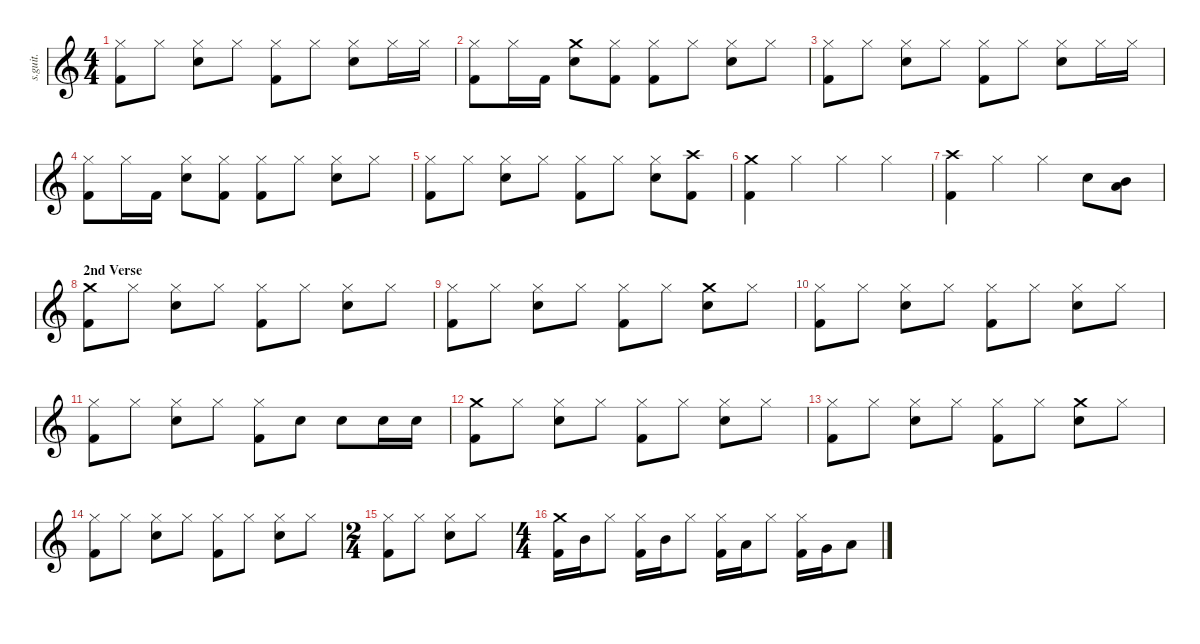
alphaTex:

\defaultSystemsLayout 4
\hideDynamics
\bracketExtendMode nobrackets
\track ("Lars Ulrich" "s.guit.") {instrument percussion}
\staff {score}
\articulation defaults
\ts (4 4)
\tempo (69 hide)
\clef g2
\ks c
("Hi-Hat (closed)" "Kick (hit) 2").8{lyrics (0 "") lyrics (1 "") lyrics (2 "") lyrics (3 "") lyrics (4 "") dy f} "Hi-Hat (closed)".8{lyrics (0 "") lyrics (1 "") lyrics (2 "") lyrics (3 "") lyrics (4 "")} ("Hi-Hat (closed)" "Snare (hit) 2").8{lyrics (0 "") lyrics (1 "") lyrics (2 "") lyrics (3 "") lyrics (4 "")} "Hi-Hat (closed)".8{lyrics (0 "") lyrics (1 "") lyrics (2 "") lyrics (3 "") lyrics (4 "")} ("Hi-Hat (closed)" "Kick (hit) 2").8{lyrics (0 "") lyrics (1 "") lyrics (2 "") lyrics (3 "") lyrics (4 "")} "Hi-Hat (closed)".8{lyrics (0 "") lyrics (1 "") lyrics (2 "") lyrics (3 "") lyrics (4 "")} ("Hi-Hat (closed)" "Snare (hit) 2").8{lyrics (0 "") lyrics (1 "") lyrics (2 "") lyrics (3 "") lyrics (4 "")} "Hi-Hat (closed)".16{lyrics (0 "") lyrics (1 "") lyrics (2 "") lyrics (3 "") lyrics (4 "")} "Hi-Hat (closed)".16{lyrics (0 "") lyrics (1 "") lyrics (2 "") lyrics (3 "") lyrics (4 "")} |
("Hi-Hat (closed)" "Kick (hit) 2").8{lyrics (0 "") lyrics (1 "") lyrics (2 "") lyrics (3 "") lyrics (4 "")} "Hi-Hat (closed)".16{lyrics (0 "") lyrics (1 "") lyrics (2 "") lyrics (3 "") lyrics (4 "")} "Kick (hit) 2".16{lyrics (0 "") lyrics (1 "") lyrics (2 "") lyrics (3 "") lyrics (4 "") dy fff} ("Crash medium (hit)" "Snare (hit) 2").8{lyrics (0 "") lyrics (1 "") lyrics (2 "") lyrics (3 "") lyrics (4 "") dy f} ("Hi-Hat (closed)" "Kick (hit) 2").8{lyrics (0 "") lyrics (1 "") lyrics (2 "") lyrics (3 "") lyrics (4 "")} ("Hi-Hat (closed)" "Kick (hit) 2").8{lyrics (0 "") lyrics (1 "") lyrics (2 "") lyrics (3 "") lyrics (4 "")} "Hi-Hat (closed)".8{lyrics (0 "") lyrics (1 "") lyrics (2 "") lyrics (3 "") lyrics (4 "")} ("Hi-Hat (closed)" "Snare (hit) 2").8{lyrics (0 "") lyrics (1 "") lyrics (2 "") lyrics (3 "") lyrics (4 "")} "Hi-Hat (closed)".8{lyrics (0 "") lyrics (1 "") lyrics (2 "") lyrics (3 "") lyrics (4 "")} |
("Hi-Hat (closed)" "Kick (hit) 2").8{lyrics (0 "") lyrics (1 "") lyrics (2 "") lyrics (3 "") lyrics (4 "")} "Hi-Hat (closed)".8{lyrics (0 "") lyrics (1 "") lyrics (2 "") lyrics (3 "") lyrics (4 "")} ("Hi-Hat (closed)" "Snare (hit) 2").8{lyrics (0 "") lyrics (1 "") lyrics (2 "") lyrics (3 "") lyrics (4 "")} "Hi-Hat (closed)".8{lyrics (0 "") lyrics (1 "") lyrics (2 "") lyrics (3 "") lyrics (4 "")} ("Hi-Hat (closed)" "Kick (hit) 2").8{lyrics (0 "") lyrics (1 "") lyrics (2 "") lyrics (3 "") lyrics (4 "")} "Hi-Hat (closed)".8{lyrics (0 "") lyrics (1 "") lyrics (2 "") lyrics (3 "") lyrics (4 "")} ("Hi-Hat (closed)" "Snare (hit) 2").8{lyrics (0 "") lyrics (1 "") lyrics (2 "") lyrics (3 "") lyrics (4 "")} "Hi-Hat (closed)".16{lyrics (0 "") lyrics (1 "") lyrics (2 "") lyrics (3 "") lyrics (4 "")} "Hi-Hat (closed)".16{lyrics (0 "") lyrics (1 "") lyrics (2 "") lyrics (3 "") lyrics (4 "")} |
("Hi-Hat (closed)" "Kick (hit) 2").8{lyrics (0 "") lyrics (1 "") lyrics (2 "") lyrics (3 "") lyrics (4 "")} "Hi-Hat (closed)".16{lyrics (0 "") lyrics (1 "") lyrics (2 "") lyrics (3 "") lyrics (4 "")} "Kick (hit) 2".16{lyrics (0 "") lyrics (1 "") lyrics (2 "") lyrics (3 "") lyrics (4 "") dy fff} ("Hi-Hat (closed)" "Snare (hit) 2").8{lyrics (0 "") lyrics (1 "") lyrics (2 "") lyrics (3 "") lyrics (4 "") dy f} ("Hi-Hat (closed)" "Kick (hit) 2").8{lyrics (0 "") lyrics (1 "") lyrics (2 "") lyrics (3 "") lyrics (4 "")} ("Hi-Hat (closed)" "Kick (hit) 2").8{lyrics (0 "") lyrics (1 "") lyrics (2 "") lyrics (3 "") lyrics (4 "")} "Hi-Hat (closed)".8{lyrics (0 "") lyrics (1 "") lyrics (2 "") lyrics (3 "") lyrics (4 "")} ("Hi-Hat (closed)" "Snare (hit) 2").8{lyrics (0 "") lyrics (1 "") lyrics (2 "") lyrics (3 "") lyrics (4 "")} "Hi-Hat (closed)".8{lyrics (0 "") lyrics (1 "") lyrics (2 "") lyrics (3 "") lyrics (4 "")} |
("Hi-Hat (closed)" "Kick (hit) 2").8{lyrics (0 "") lyrics (1 "") lyrics (2 "") lyrics (3 "") lyrics (4 "")} "Hi-Hat (closed)".8{lyrics (0 "") lyrics (1 "") lyrics (2 "") lyrics (3 "") lyrics (4 "")} ("Hi-Hat (closed)" "Snare (hit) 2").8{lyrics (0 "") lyrics (1 "") lyrics (2 "") lyrics (3 "") lyrics (4 "")} "Hi-Hat (closed)".8{lyrics (0 "") lyrics (1 "") lyrics (2 "") lyrics (3 "") lyrics (4 "")} ("Hi-Hat (closed)" "Kick (hit) 2").8{lyrics (0 "") lyrics (1 "") lyrics (2 "") lyrics (3 "") lyrics (4 "")} "Hi-Hat (closed)".8{lyrics (0 "") lyrics (1 "") lyrics (2 "") lyrics (3 "") lyrics (4 "")} ("Hi-Hat (closed)" "Snare (hit) 2").8{lyrics (0 "") lyrics (1 "") lyrics (2 "") lyrics (3 "") lyrics (4 "")} ("Crash high (hit)" "Kick (hit) 2").8{lyrics (0 "") lyrics (1 "") lyrics (2 "") lyrics (3 "") lyrics (4 "")} |
("Crash medium (hit)" "Kick (hit) 2").4{lyrics (0 "") lyrics (1 "") lyrics (2 "") lyrics (3 "") lyrics (4 "")} "Hi-Hat (closed)".4{lyrics (0 "") lyrics (1 "") lyrics (2 "") lyrics (3 "") lyrics (4 "") dy p} "Hi-Hat (closed)".4{lyrics (0 "") lyrics (1 "") lyrics (2 "") lyrics (3 "") lyrics (4 "")} "Hi-Hat (closed)".4{lyrics (0 "") lyrics (1 "") lyrics (2 "") lyrics (3 "") lyrics (4 "")} |
("Crash high (hit)" "Kick (hit) 2").4{lyrics (0 "") lyrics (1 "") lyrics (2 "") lyrics (3 "") lyrics (4 "") dy f} "Hi-Hat (closed)".4{lyrics (0 "") lyrics (1 "") lyrics (2 "") lyrics (3 "") lyrics (4 "") dy p} "Hi-Hat (closed)".4{lyrics (0 "") lyrics (1 "") lyrics (2 "") lyrics (3 "") lyrics (4 "")} "Snare (hit) 2".8{lyrics (0 "") lyrics (1 "") lyrics (2 "") lyrics (3 "") lyrics (4 "") dy f} ("Mid Tom (hit)" "Low Tom (hit)").8{lyrics (0 "") lyrics (1 "") lyrics (2 "") lyrics (3 "") lyrics (4 "") dy fff} |
\section ("" "2nd Verse")
("Crash medium (hit)" "Kick (hit) 2").8{lyrics (0 "") lyrics (1 "") lyrics (2 "") lyrics (3 "") lyrics (4 "") dy f} "Hi-Hat (closed)".8{lyrics (0 "") lyrics (1 "") lyrics (2 "") lyrics (3 "") lyrics (4 "")} ("Hi-Hat (closed)" "Snare (hit) 2").8{lyrics (0 "") lyrics (1 "") lyrics (2 "") lyrics (3 "") lyrics (4 "")} "Hi-Hat (closed)".8{lyrics (0 "") lyrics (1 "") lyrics (2 "") lyrics (3 "") lyrics (4 "")} ("Hi-Hat (closed)" "Kick (hit) 2").8{lyrics (0 "") lyrics (1 "") lyrics (2 "") lyrics (3 "") lyrics (4 "")} "Hi-Hat (closed)".8{lyrics (0 "") lyrics (1 "") lyrics (2 "") lyrics (3 "") lyrics (4 "")} ("Hi-Hat (closed)" "Snare (hit) 2").8{lyrics (0 "") lyrics (1 "") lyrics (2 "") lyrics (3 "") lyrics (4 "")} "Hi-Hat (closed)".8{lyrics (0 "") lyrics (1 "") lyrics (2 "") lyrics (3 "") lyrics (4 "")} |
("Hi-Hat (closed)" "Kick (hit) 2").8{lyrics (0 "") lyrics (1 "") lyrics (2 "") lyrics (3 "") lyrics (4 "")} "Hi-Hat (closed)".8{lyrics (0 "") lyrics (1 "") lyrics (2 "") lyrics (3 "") lyrics (4 "")} ("Hi-Hat (closed)" "Snare (hit) 2").8{lyrics (0 "") lyrics (1 "") lyrics (2 "") lyrics (3 "") lyrics (4 "")} "Hi-Hat (closed)".8{lyrics (0 "") lyrics (1 "") lyrics (2 "") lyrics (3 "") lyrics (4 "")} ("Hi-Hat (closed)" "Kick (hit) 2").8{lyrics (0 "") lyrics (1 "") lyrics (2 "") lyrics (3 "") lyrics (4 "")} "Hi-Hat (closed)".8{lyrics (0 "") lyrics (1 "") lyrics (2 "") lyrics (3 "") lyrics (4 "")} ("Crash medium (hit)" "Snare (hit) 2").8{lyrics (0 "") lyrics (1 "") lyrics (2 "") lyrics (3 "") lyrics (4 "")} "Hi-Hat (closed)".8{lyrics (0 "") lyrics (1 "") lyrics (2 "") lyrics (3 "") lyrics (4 "")} |
("Hi-Hat (closed)" "Kick (hit) 2").8{lyrics (0 "") lyrics (1 "") lyrics (2 "") lyrics (3 "") lyrics (4 "")} "Hi-Hat (closed)".8{lyrics (0 "") lyrics (1 "") lyrics (2 "") lyrics (3 "") lyrics (4 "")} ("Hi-Hat (closed)" "Snare (hit) 2").8{lyrics (0 "") lyrics (1 "") lyrics (2 "") lyrics (3 "") lyrics (4 "")} "Hi-Hat (closed)".8{lyrics (0 "") lyrics (1 "") lyrics (2 "") lyrics (3 "") lyrics (4 "")} ("Hi-Hat (closed)" "Kick (hit) 2").8{lyrics (0 "") lyrics (1 "") lyrics (2 "") lyrics (3 "") lyrics (4 "")} "Hi-Hat (closed)".8{lyrics (0 "") lyrics (1 "") lyrics (2 "") lyrics (3 "") lyrics (4 "")} ("Hi-Hat (closed)" "Snare (hit) 2").8{lyrics (0 "") lyrics (1 "") lyrics (2 "") lyrics (3 "") lyrics (4 "")} "Hi-Hat (closed)".8{lyrics (0 "") lyrics (1 "") lyrics (2 "") lyrics (3 "") lyrics (4 "")} |
("Hi-Hat (closed)" "Kick (hit) 2").8{lyrics (0 "") lyrics (1 "") lyrics (2 "") lyrics (3 "") lyrics (4 "")} "Hi-Hat (closed)".8{lyrics (0 "") lyrics (1 "") lyrics (2 "") lyrics (3 "") lyrics (4 "")} ("Hi-Hat (closed)" "Snare (hit) 2").8{lyrics (0 "") lyrics (1 "") lyrics (2 "") lyrics (3 "") lyrics (4 "")} "Hi-Hat (closed)".8{lyrics (0 "") lyrics (1 "") lyrics (2 "") lyrics (3 "") lyrics (4 "")} ("Hi-Hat (closed)" "Kick (hit) 2").8{lyrics (0 "") lyrics (1 "") lyrics (2 "") lyrics (3 "") lyrics (4 "")} "Snare (hit) 2".8{lyrics (0 "") lyrics (1 "") lyrics (2 "") lyrics (3 "") lyrics (4 "")} "Snare (hit) 2".8{lyrics (0 "") lyrics (1 "") lyrics (2 "") lyrics (3 "") lyrics (4 "")} "Snare (hit) 2".16{lyrics (0 "") lyrics (1 "") lyrics (2 "") lyrics (3 "") lyrics (4 "")} "Snare (hit) 2".16{lyrics (0 "") lyrics (1 "") lyrics (2 "") lyrics (3 "") lyrics (4 "")} |
("Crash medium (hit)" "Kick (hit) 2").8{lyrics (0 "") lyrics (1 "") lyrics (2 "") lyrics (3 "") lyrics (4 "")} "Hi-Hat (closed)".8{lyrics (0 "") lyrics (1 "") lyrics (2 "") lyrics (3 "") lyrics (4 "")} ("Hi-Hat (closed)" "Snare (hit) 2").8{lyrics (0 "") lyrics (1 "") lyrics (2 "") lyrics (3 "") lyrics (4 "")} "Hi-Hat (closed)".8{lyrics (0 "") lyrics (1 "") lyrics (2 "") lyrics (3 "") lyrics (4 "")} ("Hi-Hat (closed)" "Kick (hit) 2").8{lyrics (0 "") lyrics (1 "") lyrics (2 "") lyrics (3 "") lyrics (4 "")} "Hi-Hat (closed)".8{lyrics (0 "") lyrics (1 "") lyrics (2 "") lyrics (3 "") lyrics (4 "")} ("Hi-Hat (closed)" "Snare (hit) 2").8{lyrics (0 "") lyrics (1 "") lyrics (2 "") lyrics (3 "") lyrics (4 "")} "Hi-Hat (closed)".8{lyrics (0 "") lyrics (1 "") lyrics (2 "") lyrics (3 "") lyrics (4 "")} |
("Hi-Hat (closed)" "Kick (hit) 2").8{lyrics (0 "") lyrics (1 "") lyrics (2 "") lyrics (3 "") lyrics (4 "")} "Hi-Hat (closed)".8{lyrics (0 "") lyrics (1 "") lyrics (2 "") lyrics (3 "") lyrics (4 "")} ("Hi-Hat (closed)" "Snare (hit) 2").8{lyrics (0 "") lyrics (1 "") lyrics (2 "") lyrics (3 "") lyrics (4 "")} "Hi-Hat (closed)".8{lyrics (0 "") lyrics (1 "") lyrics (2 "") lyrics (3 "") lyrics (4 "")} ("Hi-Hat (closed)" "Kick (hit) 2").8{lyrics (0 "") lyrics (1 "") lyrics (2 "") lyrics (3 "") lyrics (4 "")} "Hi-Hat (closed)".8{lyrics (0 "") lyrics (1 "") lyrics (2 "") lyrics (3 "") lyrics (4 "")} ("Crash medium (hit)" "Snare (hit) 2").8{lyrics (0 "") lyrics (1 "") lyrics (2 "") lyrics (3 "") lyrics (4 "")} "Hi-Hat (closed)".8{lyrics (0 "") lyrics (1 "") lyrics (2 "") lyrics (3 "") lyrics (4 "")} |
("Hi-Hat (closed)" "Kick (hit) 2").8{lyrics (0 "") lyrics (1 "") lyrics (2 "") lyrics (3 "") lyrics (4 "")} "Hi-Hat (closed)".8{lyrics (0 "") lyrics (1 "") lyrics (2 "") lyrics (3 "") lyrics (4 "")} ("Hi-Hat (closed)" "Snare (hit) 2").8{lyrics (0 "") lyrics (1 "") lyrics (2 "") lyrics (3 "") lyrics (4 "")} "Hi-Hat (closed)".8{lyrics (0 "") lyrics (1 "") lyrics (2 "") lyrics (3 "") lyrics (4 "")} ("Hi-Hat (closed)" "Kick (hit) 2").8{lyrics (0 "") lyrics (1 "") lyrics (2 "") lyrics (3 "") lyrics (4 "")} "Hi-Hat (closed)".8{lyrics (0 "") lyrics (1 "") lyrics (2 "") lyrics (3 "") lyrics (4 "")} ("Hi-Hat (closed)" "Snare (hit) 2").8{lyrics (0 "") lyrics (1 "") lyrics (2 "") lyrics (3 "") lyrics (4 "")} "Hi-Hat (closed)".8{lyrics (0 "") lyrics (1 "") lyrics (2 "") lyrics (3 "") lyrics (4 "")} |
\ts (2 4)
\beaming (8 2 2 2 2)
("Hi-Hat (closed)" "Kick (hit) 2").8{lyrics (0 "") lyrics (1 "") lyrics (2 "") lyrics (3 "") lyrics (4 "")} "Hi-Hat (closed)".8{lyrics (0 "") lyrics (1 "") lyrics (2 "") lyrics (3 "") lyrics (4 "")} ("Hi-Hat (closed)" "Snare (hit) 2").8{lyrics (0 "") lyrics (1 "") lyrics (2 "") lyrics (3 "") lyrics (4 "") dy fff} "Hi-Hat (closed)".8{lyrics (0 "") lyrics (1 "") lyrics (2 "") lyrics (3 "") lyrics (4 "") dy f} |
\ts (4 4)
\beaming (8 2 2 2 2)
("Crash medium (hit)" "Kick (hit) 2").16{lyrics (0 "") lyrics (1 "") lyrics (2 "") lyrics (3 "") lyrics (4 "")} "Mid Tom (hit)".16{lyrics (0 "") lyrics (1 "") lyrics (2 "") lyrics (3 "") lyrics (4 "") dy fff} "Hi-Hat (closed)".8{lyrics (0 "") lyrics (1 "") lyrics (2 "") lyrics (3 "") lyrics (4 "") dy f} ("Hi-Hat (closed)" "Kick (hit) 2").16{lyrics (0 "") lyrics (1 "") lyrics (2 "") lyrics (3 "") lyrics (4 "")} "Mid Tom (hit)".16{lyrics (0 "") lyrics (1 "") lyrics (2 "") lyrics (3 "") lyrics (4 "") dy fff} "Hi-Hat (closed)".8{lyrics (0 "") lyrics (1 "") lyrics (2 "") lyrics (3 "") lyrics (4 "") dy f} ("Hi-Hat (closed)" "Kick (hit) 2").16{lyrics (0 "") lyrics (1 "") lyrics (2 "") lyrics (3 "") lyrics (4 "")} "Low Tom (hit)".16{lyrics (0 "") lyrics (1 "") lyrics (2 "") lyrics (3 "") lyrics (4 "") dy fff} "Hi-Hat (closed)".8{lyrics (0 "") lyrics (1 "") lyrics (2 "") lyrics (3 "") lyrics (4 "") dy f} ("Hi-Hat (closed)" "Kick (hit) 2").16{lyrics (0 "") lyrics (1 "") lyrics (2 "") lyrics (3 "") lyrics (4 "")} "Very Low Tom (hit)".16{lyrics (0 "") lyrics (1 "") lyrics (2 "") lyrics (3 "") lyrics (4 "") dy fff} "Low Floor Tom (hit)".8{lyrics (0 "") lyrics (1 "") lyrics (2 "") lyrics (3 "") lyrics (4 "")}
